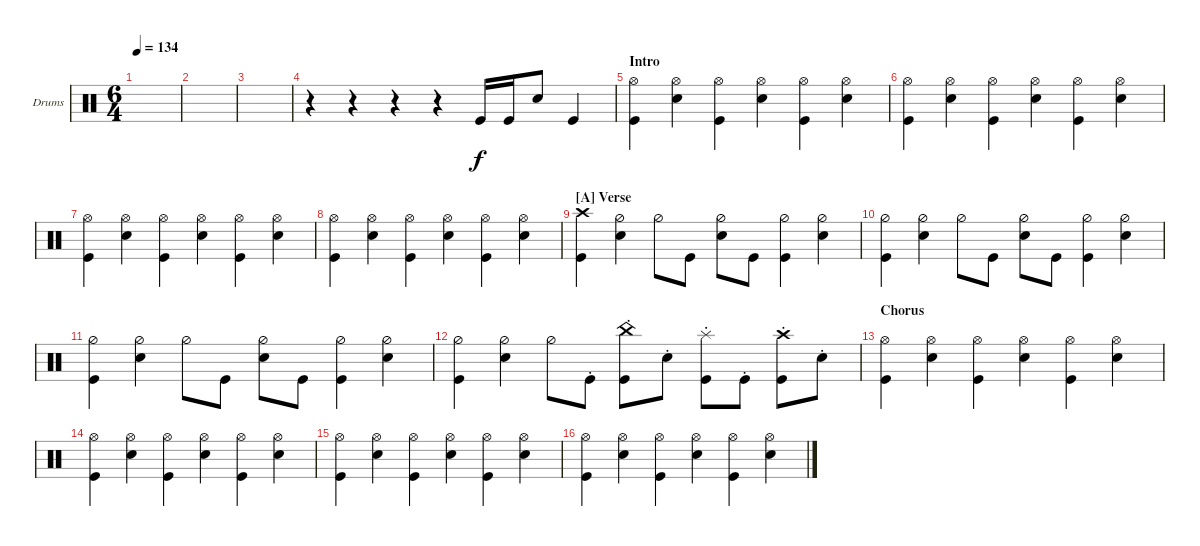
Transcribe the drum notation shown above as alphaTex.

\defaultSystemsLayout 4
\bracketExtendMode groupsimilarinstruments
\firstSystemTrackNameOrientation horizontal
\otherSystemsTrackNameOrientation horizontal
\track ("Drumkit" "Drums") {instrument percussion}
\staff {score}
\articulation defaults
\ts (6 4)
\tempo 134
\clef neutral
\ks c
|
|
|
r.4 r.4 r.4 r.4 "Kick (hit)".16 "Kick (hit)".16 "Snare (hit) 2".8 "Kick (hit)".4 |
\section ("" "Intro")
("Kick (hit)" "Hi-Hat (open)").4 ("Snare (hit) 2" "Hi-Hat (open)").4 ("Kick (hit)" "Hi-Hat (open)").4 ("Snare (hit) 2" "Hi-Hat (open)").4 ("Kick (hit)" "Hi-Hat (open)").4 ("Snare (hit) 2" "Hi-Hat (open)").4 |
("Kick (hit)" "Hi-Hat (open)").4 ("Snare (hit) 2" "Hi-Hat (open)").4 ("Kick (hit)" "Hi-Hat (open)").4 ("Snare (hit) 2" "Hi-Hat (open)").4 ("Kick (hit)" "Hi-Hat (open)").4 ("Snare (hit) 2" "Hi-Hat (open)").4 |
("Kick (hit)" "Hi-Hat (open)").4 ("Snare (hit) 2" "Hi-Hat (open)").4 ("Kick (hit)" "Hi-Hat (open)").4 ("Snare (hit) 2" "Hi-Hat (open)").4 ("Kick (hit)" "Hi-Hat (open)").4 ("Snare (hit) 2" "Hi-Hat (open)").4 |
("Kick (hit)" "Hi-Hat (open)").4 ("Snare (hit) 2" "Hi-Hat (open)").4 ("Kick (hit)" "Hi-Hat (open)").4 ("Snare (hit) 2" "Hi-Hat (open)").4 ("Kick (hit)" "Hi-Hat (open)").4 ("Snare (hit) 2" "Hi-Hat (open)").4 |
\section ("A" "Verse")
("Kick (hit)" "Crash high (hit)").4 ("Snare (hit) 2" "Hi-Hat (half)").4 "Hi-Hat (half)".8 "Kick (hit)".8 ("Snare (hit) 2" "Hi-Hat (half)").8 "Kick (hit)".8 ("Kick (hit)" "Hi-Hat (half)").4 ("Snare (hit) 2" "Hi-Hat (half)").4 |
("Kick (hit)" "Hi-Hat (half)").4 ("Snare (hit) 2" "Hi-Hat (half)").4 "Hi-Hat (half)".8 "Kick (hit)".8 ("Snare (hit) 2" "Hi-Hat (half)").8 "Kick (hit)".8 ("Kick (hit)" "Hi-Hat (half)").4 ("Snare (hit) 2" "Hi-Hat (half)").4 |
("Kick (hit)" "Hi-Hat (half)").4 ("Snare (hit) 2" "Hi-Hat (half)").4 "Hi-Hat (half)".8 "Kick (hit)".8 ("Snare (hit) 2" "Hi-Hat (half)").8 "Kick (hit)".8 ("Kick (hit)" "Hi-Hat (half)").4 ("Snare (hit) 2" "Hi-Hat (half)").4 |
("Kick (hit)" "Hi-Hat (half)").4 ("Snare (hit) 2" "Hi-Hat (half)").4 "Hi-Hat (half)".8 "Kick (hit)"{st}.8 ("Kick (hit)"{st} "China (hit)").8 "Snare (hit) 2"{st}.8 ("Kick (hit)"{st} "Splash (hit)").8 "Kick (hit)"{st}.8 ("Kick (hit)"{st} "Crash high (hit)").8 "Snare (hit) 2"{st}.8 |
\section ("" "Chorus")
("Kick (hit)" "Hi-Hat (open)").4 ("Snare (hit) 2" "Hi-Hat (open)").4 ("Kick (hit)" "Hi-Hat (open)").4 ("Snare (hit) 2" "Hi-Hat (open)").4 ("Kick (hit)" "Hi-Hat (open)").4 ("Snare (hit) 2" "Hi-Hat (open)").4 |
("Kick (hit)" "Hi-Hat (open)").4 ("Snare (hit) 2" "Hi-Hat (open)").4 ("Kick (hit)" "Hi-Hat (open)").4 ("Snare (hit) 2" "Hi-Hat (open)").4 ("Kick (hit)" "Hi-Hat (open)").4 ("Snare (hit) 2" "Hi-Hat (open)").4 |
("Kick (hit)" "Hi-Hat (open)").4 ("Snare (hit) 2" "Hi-Hat (open)").4 ("Kick (hit)" "Hi-Hat (open)").4 ("Snare (hit) 2" "Hi-Hat (open)").4 ("Kick (hit)" "Hi-Hat (open)").4 ("Snare (hit) 2" "Hi-Hat (open)").4 |
("Kick (hit)" "Hi-Hat (open)").4 ("Snare (hit) 2" "Hi-Hat (open)").4 ("Kick (hit)" "Hi-Hat (open)").4 ("Snare (hit) 2" "Hi-Hat (open)").4 ("Kick (hit)" "Hi-Hat (open)").4 ("Snare (hit) 2" "Hi-Hat (open)").4
